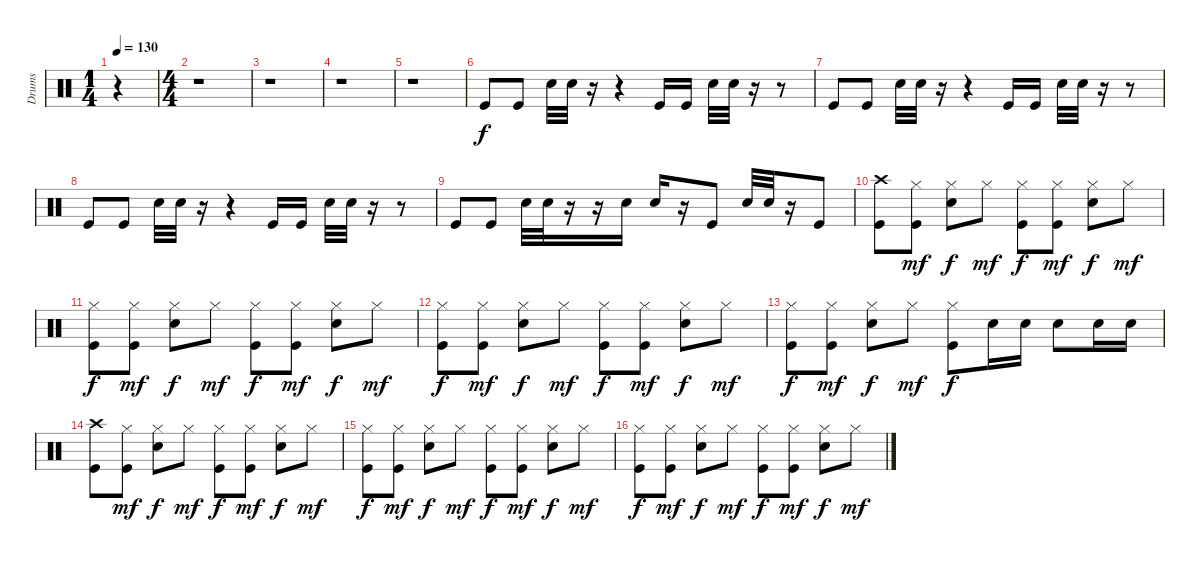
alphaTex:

\track ("Drums" "Drums") {instrument percussion}
\staff {score}
\articulation defaults
\ts (1 4)
\tempo 130
\clef neutral
\ks c
r.4{dy f} |
\ts (4 4)
r.1 |
r.1 |
r.1 |
r.1 |
"Kick (hit)".8 "Kick (hit)".8 "Snare (hit) 2".32 "Snare (hit) 2".32 r.16 r.4 "Kick (hit)".16 "Kick (hit)".16 "Snare (hit) 2".32 "Snare (hit) 2".32 r.16 r.8 |
"Kick (hit)".8 "Kick (hit)".8 "Snare (hit) 2".32 "Snare (hit) 2".32 r.16 r.4 "Kick (hit)".16 "Kick (hit)".16 "Snare (hit) 2".32 "Snare (hit) 2".32 r.16 r.8 |
"Kick (hit)".8 "Kick (hit)".8 "Snare (hit) 2".32 "Snare (hit) 2".32 r.16 r.4 "Kick (hit)".16 "Kick (hit)".16 "Snare (hit) 2".32 "Snare (hit) 2".32 r.16 r.8 |
"Kick (hit)".8 "Kick (hit)".8 "Snare (hit) 2".32 "Snare (hit) 2".32 r.16 r.16 "Snare (hit) 2".16 "Snare (hit) 2".16 r.16 "Kick (hit)".8 "Snare (hit) 2".32 "Snare (hit) 2".32 r.16 "Kick (hit)".8 |
("Kick (hit)" "Crash high (hit)").8 ("Hi-Hat (closed)" "Kick (hit)").8{dy mf} ("Hi-Hat (closed)" "Snare (hit) 2").8{dy f} "Hi-Hat (closed)".8{dy mf} ("Hi-Hat (closed)" "Kick (hit)").8{dy f} ("Hi-Hat (closed)" "Kick (hit)").8{dy mf} ("Hi-Hat (closed)" "Snare (hit) 2").8{dy f} "Hi-Hat (closed)".8{dy mf} |
("Hi-Hat (closed)" "Kick (hit)").8{dy f} ("Hi-Hat (closed)" "Kick (hit)").8{dy mf} ("Hi-Hat (closed)" "Snare (hit) 2").8{dy f} "Hi-Hat (closed)".8{dy mf} ("Hi-Hat (closed)" "Kick (hit)").8{dy f} ("Hi-Hat (closed)" "Kick (hit)").8{dy mf} ("Hi-Hat (closed)" "Snare (hit) 2").8{dy f} "Hi-Hat (closed)".8{dy mf} |
("Hi-Hat (closed)" "Kick (hit)").8{dy f} ("Hi-Hat (closed)" "Kick (hit)").8{dy mf} ("Hi-Hat (closed)" "Snare (hit) 2").8{dy f} "Hi-Hat (closed)".8{dy mf} ("Hi-Hat (closed)" "Kick (hit)").8{dy f} ("Hi-Hat (closed)" "Kick (hit)").8{dy mf} ("Hi-Hat (closed)" "Snare (hit) 2").8{dy f} "Hi-Hat (closed)".8{dy mf} |
("Hi-Hat (closed)" "Kick (hit)").8{dy f} ("Hi-Hat (closed)" "Kick (hit)").8{dy mf} ("Hi-Hat (closed)" "Snare (hit) 2").8{dy f} "Hi-Hat (closed)".8{dy mf} ("Hi-Hat (closed)" "Kick (hit)").8{dy f} "Snare (hit) 2".16 "Snare (hit) 2".16 "Snare (hit) 2".8 "Snare (hit) 2".16 "Snare (hit) 2".16 |
("Kick (hit)" "Crash high (hit)").8 ("Hi-Hat (closed)" "Kick (hit)").8{dy mf} ("Hi-Hat (closed)" "Snare (hit) 2").8{dy f} "Hi-Hat (closed)".8{dy mf} ("Hi-Hat (closed)" "Kick (hit)").8{dy f} ("Hi-Hat (closed)" "Kick (hit)").8{dy mf} ("Hi-Hat (closed)" "Snare (hit) 2").8{dy f} "Hi-Hat (closed)".8{dy mf} |
("Hi-Hat (closed)" "Kick (hit)").8{dy f} ("Hi-Hat (closed)" "Kick (hit)").8{dy mf} ("Hi-Hat (closed)" "Snare (hit) 2").8{dy f} "Hi-Hat (closed)".8{dy mf} ("Hi-Hat (closed)" "Kick (hit)").8{dy f} ("Hi-Hat (closed)" "Kick (hit)").8{dy mf} ("Hi-Hat (closed)" "Snare (hit) 2").8{dy f} "Hi-Hat (closed)".8{dy mf} |
("Hi-Hat (closed)" "Kick (hit)").8{dy f} ("Hi-Hat (closed)" "Kick (hit)").8{dy mf} ("Hi-Hat (closed)" "Snare (hit) 2").8{dy f} "Hi-Hat (closed)".8{dy mf} ("Hi-Hat (closed)" "Kick (hit)").8{dy f} ("Hi-Hat (closed)" "Kick (hit)").8{dy mf} ("Hi-Hat (closed)" "Snare (hit) 2").8{dy f} "Hi-Hat (closed)".8{dy mf}
